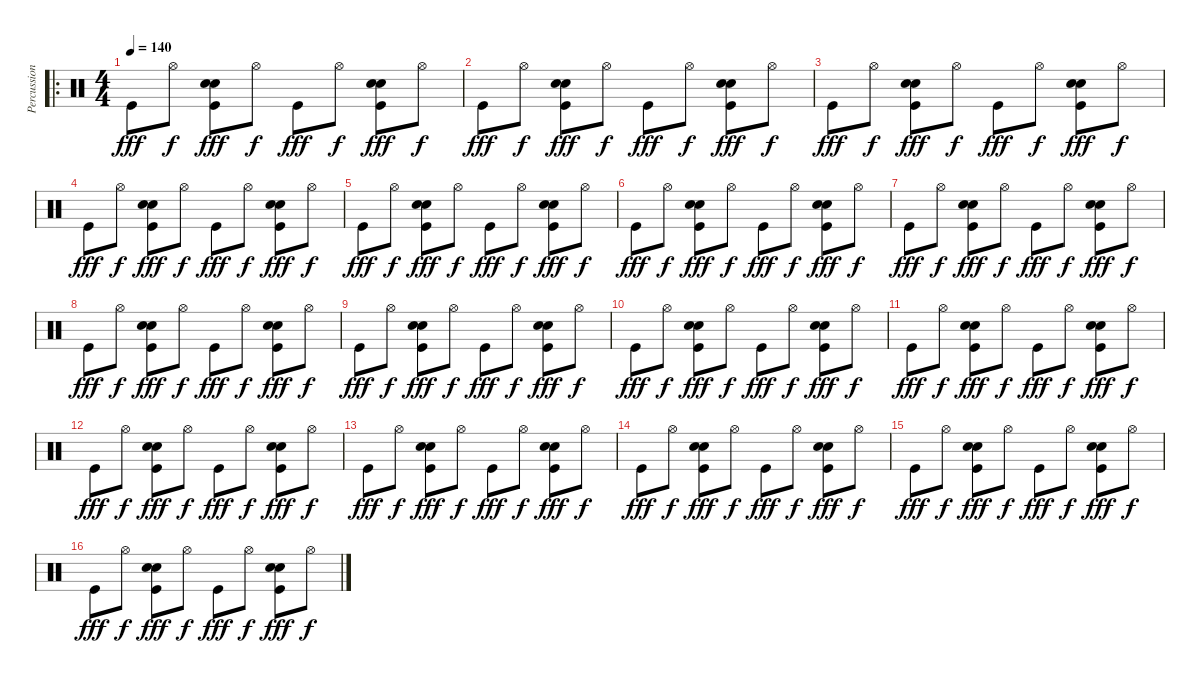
\track ("Percussions" "Percussion") {instrument percussion}
\staff {score}
\articulation defaults
\ro
\ts (4 4)
\tempo 140
\clef neutral
\ks c "Kick (hit)".8{dy fff} "Hi-Hat (open)".8{dy f}
("Kick (hit)" "Snare (hit) 2" "Hand Clap (hit)").8{dy fff} "Hi-Hat (open)".8{dy f} "Kick (hit)".8{dy fff} "Hi-Hat (open)".8{dy f} ("Kick (hit)" "Snare (hit) 2" "Hand Clap (hit)").8{dy fff} "Hi-Hat (open)".8{dy f} |
"Kick (hit)".8{dy fff} "Hi-Hat (open)".8{dy f} ("Kick (hit)" "Snare (hit) 2" "Hand Clap (hit)").8{dy fff} "Hi-Hat (open)".8{dy f} "Kick (hit)".8{dy fff} "Hi-Hat (open)".8{dy f} ("Kick (hit)" "Snare (hit) 2" "Hand Clap (hit)").8{dy fff} "Hi-Hat (open)".8{dy f} |
"Kick (hit)".8{dy fff} "Hi-Hat (open)".8{dy f} ("Kick (hit)" "Snare (hit) 2" "Hand Clap (hit)").8{dy fff} "Hi-Hat (open)".8{dy f} "Kick (hit)".8{dy fff} "Hi-Hat (open)".8{dy f} ("Kick (hit)" "Snare (hit) 2" "Hand Clap (hit)").8{dy fff} "Hi-Hat (open)".8{dy f} |
"Kick (hit)".8{dy fff} "Hi-Hat (open)".8{dy f} ("Kick (hit)" "Snare (hit) 2" "Hand Clap (hit)").8{dy fff} "Hi-Hat (open)".8{dy f} "Kick (hit)".8{dy fff} "Hi-Hat (open)".8{dy f} ("Kick (hit)" "Snare (hit) 2" "Hand Clap (hit)").8{dy fff} "Hi-Hat (open)".8{dy f} |
"Kick (hit)".8{dy fff} "Hi-Hat (open)".8{dy f} ("Kick (hit)" "Snare (hit) 2" "Hand Clap (hit)").8{dy fff} "Hi-Hat (open)".8{dy f} "Kick (hit)".8{dy fff} "Hi-Hat (open)".8{dy f} ("Kick (hit)" "Snare (hit) 2" "Hand Clap (hit)").8{dy fff} "Hi-Hat (open)".8{dy f} |
"Kick (hit)".8{dy fff} "Hi-Hat (open)".8{dy f} ("Kick (hit)" "Snare (hit) 2" "Hand Clap (hit)").8{dy fff} "Hi-Hat (open)".8{dy f} "Kick (hit)".8{dy fff} "Hi-Hat (open)".8{dy f} ("Kick (hit)" "Snare (hit) 2" "Hand Clap (hit)").8{dy fff} "Hi-Hat (open)".8{dy f} |
"Kick (hit)".8{dy fff} "Hi-Hat (open)".8{dy f} ("Kick (hit)" "Snare (hit) 2" "Hand Clap (hit)").8{dy fff} "Hi-Hat (open)".8{dy f} "Kick (hit)".8{dy fff} "Hi-Hat (open)".8{dy f} ("Kick (hit)" "Snare (hit) 2" "Hand Clap (hit)").8{dy fff} "Hi-Hat (open)".8{dy f} |
"Kick (hit)".8{dy fff} "Hi-Hat (open)".8{dy f} ("Kick (hit)" "Snare (hit) 2" "Hand Clap (hit)").8{dy fff} "Hi-Hat (open)".8{dy f} "Kick (hit)".8{dy fff} "Hi-Hat (open)".8{dy f} ("Kick (hit)" "Snare (hit) 2" "Hand Clap (hit)").8{dy fff} "Hi-Hat (open)".8{dy f} |
"Kick (hit)".8{dy fff} "Hi-Hat (open)".8{dy f} ("Kick (hit)" "Snare (hit) 2" "Hand Clap (hit)").8{dy fff} "Hi-Hat (open)".8{dy f} "Kick (hit)".8{dy fff} "Hi-Hat (open)".8{dy f} ("Kick (hit)" "Snare (hit) 2" "Hand Clap (hit)").8{dy fff} "Hi-Hat (open)".8{dy f} |
"Kick (hit)".8{dy fff} "Hi-Hat (open)".8{dy f} ("Kick (hit)" "Snare (hit) 2" "Hand Clap (hit)").8{dy fff} "Hi-Hat (open)".8{dy f} "Kick (hit)".8{dy fff} "Hi-Hat (open)".8{dy f} ("Kick (hit)" "Snare (hit) 2" "Hand Clap (hit)").8{dy fff} "Hi-Hat (open)".8{dy f} |
"Kick (hit)".8{dy fff} "Hi-Hat (open)".8{dy f} ("Kick (hit)" "Snare (hit) 2" "Hand Clap (hit)").8{dy fff} "Hi-Hat (open)".8{dy f} "Kick (hit)".8{dy fff} "Hi-Hat (open)".8{dy f} ("Kick (hit)" "Snare (hit) 2" "Hand Clap (hit)").8{dy fff} "Hi-Hat (open)".8{dy f} |
"Kick (hit)".8{dy fff} "Hi-Hat (open)".8{dy f} ("Kick (hit)" "Snare (hit) 2" "Hand Clap (hit)").8{dy fff} "Hi-Hat (open)".8{dy f} "Kick (hit)".8{dy fff} "Hi-Hat (open)".8{dy f} ("Kick (hit)" "Snare (hit) 2" "Hand Clap (hit)").8{dy fff} "Hi-Hat (open)".8{dy f} |
"Kick (hit)".8{dy fff} "Hi-Hat (open)".8{dy f} ("Kick (hit)" "Snare (hit) 2" "Hand Clap (hit)").8{dy fff} "Hi-Hat (open)".8{dy f} "Kick (hit)".8{dy fff} "Hi-Hat (open)".8{dy f} ("Kick (hit)" "Snare (hit) 2" "Hand Clap (hit)").8{dy fff} "Hi-Hat (open)".8{dy f} |
"Kick (hit)".8{dy fff} "Hi-Hat (open)".8{dy f} ("Kick (hit)" "Snare (hit) 2" "Hand Clap (hit)").8{dy fff} "Hi-Hat (open)".8{dy f} "Kick (hit)".8{dy fff} "Hi-Hat (open)".8{dy f} ("Kick (hit)" "Snare (hit) 2" "Hand Clap (hit)").8{dy fff} "Hi-Hat (open)".8{dy f} |
"Kick (hit)".8{dy fff} "Hi-Hat (open)".8{dy f} ("Kick (hit)" "Snare (hit) 2" "Hand Clap (hit)").8{dy fff} "Hi-Hat (open)".8{dy f} "Kick (hit)".8{dy fff} "Hi-Hat (open)".8{dy f} ("Kick (hit)" "Snare (hit) 2" "Hand Clap (hit)").8{dy fff} "Hi-Hat (open)".8{dy f} |
"Kick (hit)".8{dy fff} "Hi-Hat (open)".8{dy f} ("Kick (hit)" "Snare (hit) 2" "Hand Clap (hit)").8{dy fff} "Hi-Hat (open)".8{dy f} "Kick (hit)".8{dy fff} "Hi-Hat (open)".8{dy f} ("Kick (hit)" "Snare (hit) 2" "Hand Clap (hit)").8{dy fff} "Hi-Hat (open)".8{dy f}
